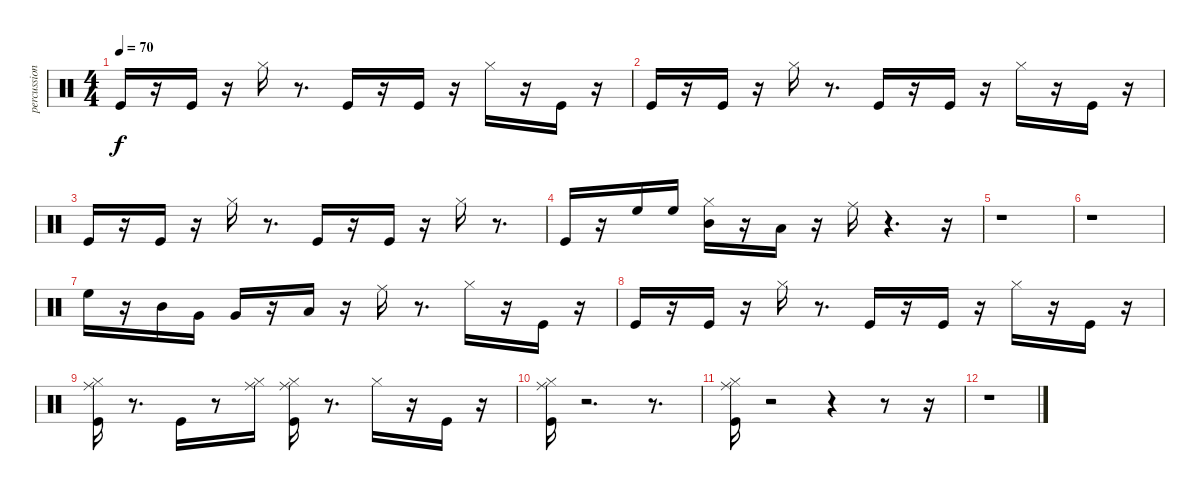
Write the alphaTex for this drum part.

\track ("percussion" "percussion") {instrument percussion}
\staff {score}
\articulation defaults
\ts (4 4)
\tempo 70
\clef neutral
\ks c "Kick (hit)".16{dy f}
r.16 "Kick (hit)".16 r.16 "Hi-Hat (closed)".16 r.8{d} "Kick (hit)".16 r.16 "Kick (hit)".16 r.16 "Hi-Hat (closed)".16 r.16 "Kick (hit)".16 r.16 |
"Kick (hit)".16 r.16 "Kick (hit)".16 r.16 "Hi-Hat (closed)".16 r.8{d} "Kick (hit)".16 r.16 "Kick (hit)".16 r.16 "Hi-Hat (closed)".16 r.16 "Kick (hit)".16 r.16 |
"Kick (hit)".16 r.16 "Kick (hit)".16 r.16 "Hi-Hat (closed)".16 r.8{d} "Kick (hit)".16 r.16 "Kick (hit)".16 r.16 "Hi-Hat (closed)".16 r.8{d} |
"Kick (hit)".16 r.16 "High Floor Tom (hit)".16 "High Floor Tom (hit)".16 ("Hi-Hat (closed)" "Mid Tom (hit)").16 r.16 "Low Tom (hit)".16 r.16 "Ride (middle)".16 r.4{d} r.16 |
r.1 |
r.1 |
"High Floor Tom (hit)".16 r.16 "Mid Tom (hit)".16 "Very Low Tom (hit)".16 "Very Low Tom (hit)".16 r.16 "Low Floor Tom (hit)".16 r.16 "Ride (middle)".16 r.8{d} "Hi-Hat (closed)".16 r.16 "Kick (hit)".16 r.16 |
"Kick (hit)".16 r.16 "Kick (hit)".16 r.16 "Hi-Hat (closed)".16 r.8{d} "Kick (hit)".16 r.16 "Kick (hit)".16 r.16 "Hi-Hat (closed)".16 r.16 "Kick (hit)".16 r.16 |
("Ride (middle)" "Kick (hit)" "Hi-Hat (closed)").16 r.8{d} "Kick (hit)".16 r.8 ("Ride (middle)" "Hi-Hat (closed)").16 ("Ride (middle)" "Kick (hit)" "Hi-Hat (closed)").16 r.8{d} "Hi-Hat (closed)".16 r.16 "Kick (hit)".16 r.16 |
("Kick (hit)" "Ride (middle)" "Hi-Hat (closed)").16 r.2{d} r.8{d} |
("Kick (hit)" "Ride (middle)" "Hi-Hat (closed)").16 r.2 r.4 r.8 r.16 |
r.1
